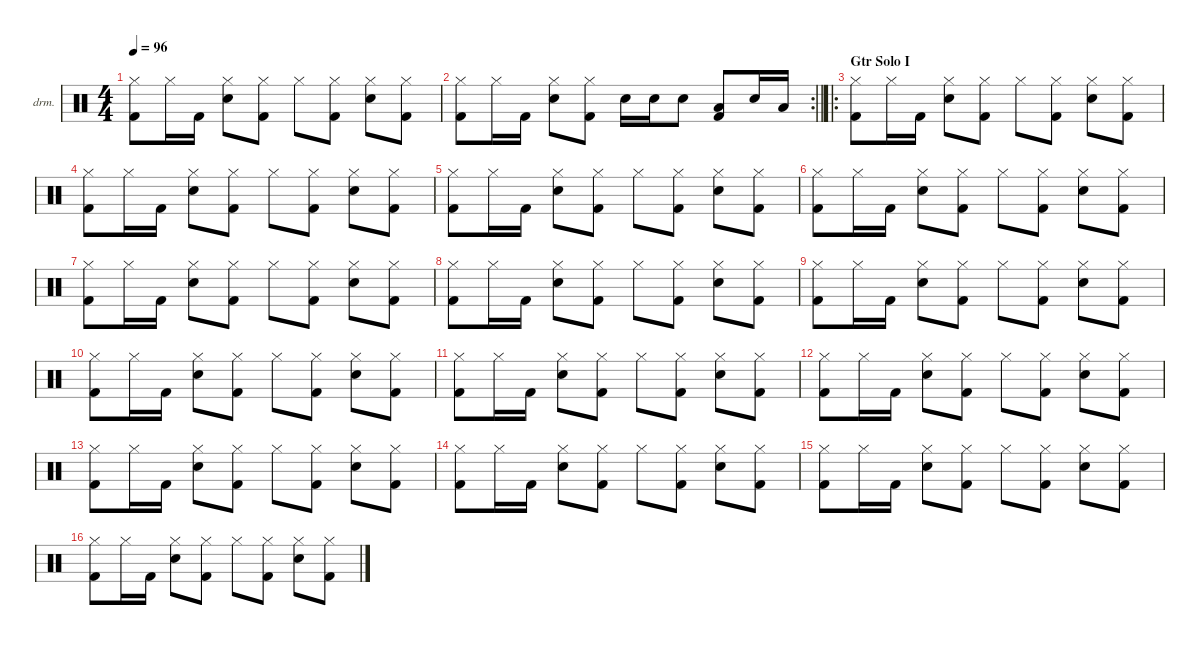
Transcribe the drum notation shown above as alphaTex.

\defaultSystemsLayout 4
\hideDynamics
\bracketExtendMode nobrackets
\firstSystemTrackNameOrientation horizontal
\otherSystemsTrackNameOrientation horizontal
\track ("Drums" "drm.") {instrument percussion}
\staff {score}
\articulation defaults
\ts (4 4)
\tempo 96
\clef neutral
\ks c
("Hi-Hat (closed)" "Kick (hit) 2").8{dy f} "Hi-Hat (closed)".16 "Kick (hit) 2".16 ("Hi-Hat (closed)" "Snare (hit) 2").8 ("Hi-Hat (closed)" "Kick (hit) 2").8 "Hi-Hat (closed)".8 ("Hi-Hat (closed)" "Kick (hit) 2").8 ("Hi-Hat (closed)" "Snare (hit) 2").8 ("Hi-Hat (closed)" "Kick (hit) 2").8 |
\rc 2
\barLineRight lightlight
("Hi-Hat (closed)" "Kick (hit) 2").8 "Hi-Hat (closed)".16 "Kick (hit) 2".16 ("Hi-Hat (closed)" "Snare (hit) 2").8 ("Hi-Hat (closed)" "Kick (hit) 2").8 "Snare (hit) 2".16 "Snare (hit) 2".16 "Snare (hit) 2".8 ("Low Tom (hit)" "Kick (hit) 2").8 "Snare (hit) 2".16 "Low Tom (hit)".16 |
\ro
\section ("" "Gtr Solo I")
("Hi-Hat (closed)" "Kick (hit) 2").8 "Hi-Hat (closed)".16 "Kick (hit) 2".16 ("Hi-Hat (closed)" "Snare (hit) 2").8 ("Hi-Hat (closed)" "Kick (hit) 2").8 "Hi-Hat (closed)".8 ("Hi-Hat (closed)" "Kick (hit) 2").8 ("Hi-Hat (closed)" "Snare (hit) 2").8 ("Hi-Hat (closed)" "Kick (hit) 2").8 |
("Hi-Hat (closed)" "Kick (hit) 2").8 "Hi-Hat (closed)".16 "Kick (hit) 2".16 ("Hi-Hat (closed)" "Snare (hit) 2").8 ("Hi-Hat (closed)" "Kick (hit) 2").8 "Hi-Hat (closed)".8 ("Hi-Hat (closed)" "Kick (hit) 2").8 ("Hi-Hat (closed)" "Snare (hit) 2").8 ("Hi-Hat (closed)" "Kick (hit) 2").8 |
("Hi-Hat (closed)" "Kick (hit) 2").8 "Hi-Hat (closed)".16 "Kick (hit) 2".16 ("Hi-Hat (closed)" "Snare (hit) 2").8 ("Hi-Hat (closed)" "Kick (hit) 2").8 "Hi-Hat (closed)".8 ("Hi-Hat (closed)" "Kick (hit) 2").8 ("Hi-Hat (closed)" "Snare (hit) 2").8 ("Hi-Hat (closed)" "Kick (hit) 2").8 |
("Hi-Hat (closed)" "Kick (hit) 2").8 "Hi-Hat (closed)".16 "Kick (hit) 2".16 ("Hi-Hat (closed)" "Snare (hit) 2").8 ("Hi-Hat (closed)" "Kick (hit) 2").8 "Hi-Hat (closed)".8 ("Hi-Hat (closed)" "Kick (hit) 2").8 ("Hi-Hat (closed)" "Snare (hit) 2").8 ("Hi-Hat (closed)" "Kick (hit) 2").8 |
("Hi-Hat (closed)" "Kick (hit) 2").8 "Hi-Hat (closed)".16 "Kick (hit) 2".16 ("Hi-Hat (closed)" "Snare (hit) 2").8 ("Hi-Hat (closed)" "Kick (hit) 2").8 "Hi-Hat (closed)".8 ("Hi-Hat (closed)" "Kick (hit) 2").8 ("Hi-Hat (closed)" "Snare (hit) 2").8 ("Hi-Hat (closed)" "Kick (hit) 2").8 |
("Hi-Hat (closed)" "Kick (hit) 2").8 "Hi-Hat (closed)".16 "Kick (hit) 2".16 ("Hi-Hat (closed)" "Snare (hit) 2").8 ("Hi-Hat (closed)" "Kick (hit) 2").8 "Hi-Hat (closed)".8 ("Hi-Hat (closed)" "Kick (hit) 2").8 ("Hi-Hat (closed)" "Snare (hit) 2").8 ("Hi-Hat (closed)" "Kick (hit) 2").8 |
("Hi-Hat (closed)" "Kick (hit) 2").8 "Hi-Hat (closed)".16 "Kick (hit) 2".16 ("Hi-Hat (closed)" "Snare (hit) 2").8 ("Hi-Hat (closed)" "Kick (hit) 2").8 "Hi-Hat (closed)".8 ("Hi-Hat (closed)" "Kick (hit) 2").8 ("Hi-Hat (closed)" "Snare (hit) 2").8 ("Hi-Hat (closed)" "Kick (hit) 2").8 |
("Hi-Hat (closed)" "Kick (hit) 2").8 "Hi-Hat (closed)".16 "Kick (hit) 2".16 ("Hi-Hat (closed)" "Snare (hit) 2").8 ("Hi-Hat (closed)" "Kick (hit) 2").8 "Hi-Hat (closed)".8 ("Hi-Hat (closed)" "Kick (hit) 2").8 ("Hi-Hat (closed)" "Snare (hit) 2").8 ("Hi-Hat (closed)" "Kick (hit) 2").8 |
("Hi-Hat (closed)" "Kick (hit) 2").8 "Hi-Hat (closed)".16 "Kick (hit) 2".16 ("Hi-Hat (closed)" "Snare (hit) 2").8 ("Hi-Hat (closed)" "Kick (hit) 2").8 "Hi-Hat (closed)".8 ("Hi-Hat (closed)" "Kick (hit) 2").8 ("Hi-Hat (closed)" "Snare (hit) 2").8 ("Hi-Hat (closed)" "Kick (hit) 2").8 |
("Hi-Hat (closed)" "Kick (hit) 2").8 "Hi-Hat (closed)".16 "Kick (hit) 2".16 ("Hi-Hat (closed)" "Snare (hit) 2").8 ("Hi-Hat (closed)" "Kick (hit) 2").8 "Hi-Hat (closed)".8 ("Hi-Hat (closed)" "Kick (hit) 2").8 ("Hi-Hat (closed)" "Snare (hit) 2").8 ("Hi-Hat (closed)" "Kick (hit) 2").8 |
("Hi-Hat (closed)" "Kick (hit) 2").8 "Hi-Hat (closed)".16 "Kick (hit) 2".16 ("Hi-Hat (closed)" "Snare (hit) 2").8 ("Hi-Hat (closed)" "Kick (hit) 2").8 "Hi-Hat (closed)".8 ("Hi-Hat (closed)" "Kick (hit) 2").8 ("Hi-Hat (closed)" "Snare (hit) 2").8 ("Hi-Hat (closed)" "Kick (hit) 2").8 |
("Hi-Hat (closed)" "Kick (hit) 2").8 "Hi-Hat (closed)".16 "Kick (hit) 2".16 ("Hi-Hat (closed)" "Snare (hit) 2").8 ("Hi-Hat (closed)" "Kick (hit) 2").8 "Hi-Hat (closed)".8 ("Hi-Hat (closed)" "Kick (hit) 2").8 ("Hi-Hat (closed)" "Snare (hit) 2").8 ("Hi-Hat (closed)" "Kick (hit) 2").8 |
("Hi-Hat (closed)" "Kick (hit) 2").8 "Hi-Hat (closed)".16 "Kick (hit) 2".16 ("Hi-Hat (closed)" "Snare (hit) 2").8 ("Hi-Hat (closed)" "Kick (hit) 2").8 "Hi-Hat (closed)".8 ("Hi-Hat (closed)" "Kick (hit) 2").8 ("Hi-Hat (closed)" "Snare (hit) 2").8 ("Hi-Hat (closed)" "Kick (hit) 2").8 |
("Hi-Hat (closed)" "Kick (hit) 2").8 "Hi-Hat (closed)".16 "Kick (hit) 2".16 ("Hi-Hat (closed)" "Snare (hit) 2").8 ("Hi-Hat (closed)" "Kick (hit) 2").8 "Hi-Hat (closed)".8 ("Hi-Hat (closed)" "Kick (hit) 2").8 ("Hi-Hat (closed)" "Snare (hit) 2").8 ("Hi-Hat (closed)" "Kick (hit) 2").8
